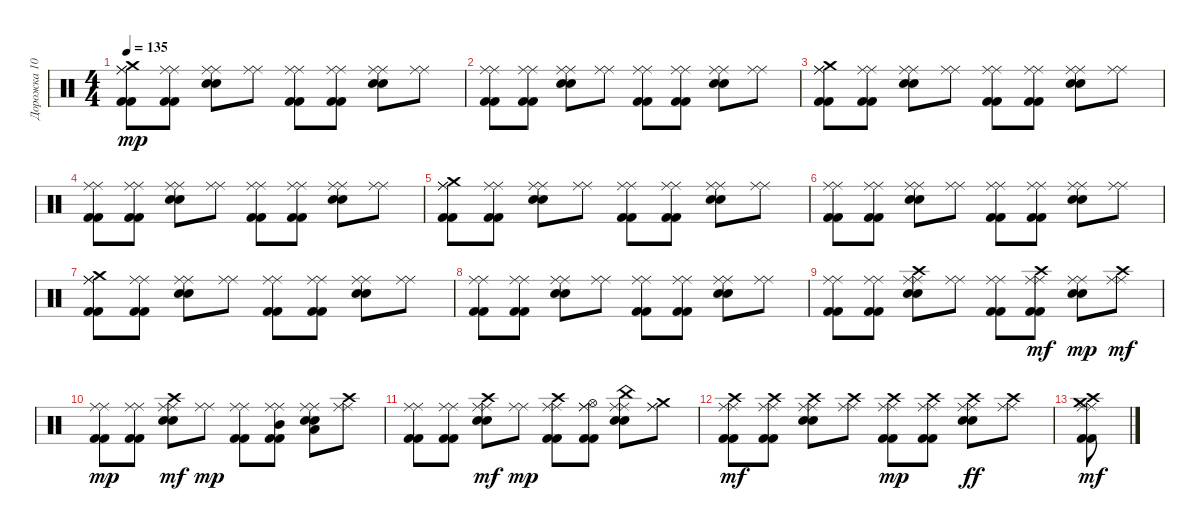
\track ("Дорожка 10" "Дорожка 10") {instrument percussion}
\staff {score}
\articulation defaults
\ts (4 4)
\tempo 135
\clef neutral
\ks c
("Kick (hit) 2" "Ride (middle)" "Kick (hit) 2" "Ride (middle)" "Crash medium (hit)").8{dy mp} ("Kick (hit) 2" "Ride (middle)" "Kick (hit) 2" "Ride (middle)").8 ("Snare (hit) 2" "Ride (middle)" "Snare (hit) 2" "Ride (middle)").8 ("Ride (middle)" "Ride (middle)").8 ("Kick (hit) 2" "Ride (middle)" "Kick (hit) 2" "Ride (middle)").8 ("Kick (hit) 2" "Ride (middle)" "Kick (hit) 2" "Ride (middle)").8 ("Snare (hit) 2" "Ride (middle)" "Snare (hit) 2" "Ride (middle)").8 ("Ride (middle)" "Ride (middle)").8 |
("Kick (hit) 2" "Ride (middle)" "Kick (hit) 2" "Ride (middle)").8 ("Kick (hit) 2" "Ride (middle)" "Kick (hit) 2" "Ride (middle)").8 ("Snare (hit) 2" "Ride (middle)" "Snare (hit) 2" "Ride (middle)").8 ("Ride (middle)" "Ride (middle)").8 ("Kick (hit) 2" "Ride (middle)" "Kick (hit) 2" "Ride (middle)").8 ("Kick (hit) 2" "Ride (middle)" "Kick (hit) 2" "Ride (middle)").8 ("Snare (hit) 2" "Ride (middle)" "Snare (hit) 2" "Ride (middle)").8 ("Ride (middle)" "Ride (middle)").8 |
("Kick (hit) 2" "Ride (middle)" "Kick (hit) 2" "Ride (middle)" "Crash medium (hit)").8 ("Kick (hit) 2" "Ride (middle)" "Kick (hit) 2" "Ride (middle)").8 ("Snare (hit) 2" "Ride (middle)" "Snare (hit) 2" "Ride (middle)").8 ("Ride (middle)" "Ride (middle)").8 ("Kick (hit) 2" "Ride (middle)" "Kick (hit) 2" "Ride (middle)").8 ("Kick (hit) 2" "Ride (middle)" "Kick (hit) 2" "Ride (middle)").8 ("Snare (hit) 2" "Ride (middle)" "Snare (hit) 2" "Ride (middle)").8 ("Ride (middle)" "Ride (middle)").8 |
("Kick (hit) 2" "Ride (middle)" "Kick (hit) 2" "Ride (middle)").8 ("Kick (hit) 2" "Ride (middle)" "Kick (hit) 2" "Ride (middle)").8 ("Snare (hit) 2" "Ride (middle)" "Snare (hit) 2" "Ride (middle)").8 ("Ride (middle)" "Ride (middle)").8 ("Kick (hit) 2" "Ride (middle)" "Kick (hit) 2" "Ride (middle)").8 ("Kick (hit) 2" "Ride (middle)" "Kick (hit) 2" "Ride (middle)").8 ("Snare (hit) 2" "Ride (middle)" "Snare (hit) 2" "Ride (middle)").8 ("Ride (middle)" "Ride (middle)").8 |
("Kick (hit) 2" "Ride (middle)" "Kick (hit) 2" "Ride (middle)" "Crash medium (hit)").8 ("Kick (hit) 2" "Ride (middle)" "Kick (hit) 2" "Ride (middle)").8 ("Snare (hit) 2" "Ride (middle)" "Snare (hit) 2" "Ride (middle)").8 ("Ride (middle)" "Ride (middle)").8 ("Kick (hit) 2" "Ride (middle)" "Kick (hit) 2" "Ride (middle)").8 ("Kick (hit) 2" "Ride (middle)" "Kick (hit) 2" "Ride (middle)").8 ("Snare (hit) 2" "Ride (middle)" "Snare (hit) 2" "Ride (middle)").8 ("Ride (middle)" "Ride (middle)").8 |
("Kick (hit) 2" "Ride (middle)" "Kick (hit) 2" "Ride (middle)").8 ("Kick (hit) 2" "Ride (middle)" "Kick (hit) 2" "Ride (middle)").8 ("Snare (hit) 2" "Ride (middle)" "Snare (hit) 2" "Ride (middle)").8 ("Ride (middle)" "Ride (middle)").8 ("Kick (hit) 2" "Ride (middle)" "Kick (hit) 2" "Ride (middle)").8 ("Kick (hit) 2" "Ride (middle)" "Kick (hit) 2" "Ride (middle)").8 ("Snare (hit) 2" "Ride (middle)" "Snare (hit) 2" "Ride (middle)").8 ("Ride (middle)" "Ride (middle)").8 |
("Kick (hit) 2" "Ride (middle)" "Kick (hit) 2" "Ride (middle)" "Crash medium (hit)").8 ("Kick (hit) 2" "Ride (middle)" "Kick (hit) 2" "Ride (middle)").8 ("Snare (hit) 2" "Ride (middle)" "Snare (hit) 2" "Ride (middle)").8 ("Ride (middle)" "Ride (middle)").8 ("Kick (hit) 2" "Ride (middle)" "Kick (hit) 2" "Ride (middle)").8 ("Kick (hit) 2" "Ride (middle)" "Kick (hit) 2" "Ride (middle)").8 ("Snare (hit) 2" "Ride (middle)" "Snare (hit) 2" "Ride (middle)").8 ("Ride (middle)" "Ride (middle)").8 |
("Kick (hit) 2" "Ride (middle)" "Kick (hit) 2" "Ride (middle)").8 ("Kick (hit) 2" "Ride (middle)" "Kick (hit) 2" "Ride (middle)").8 ("Snare (hit) 2" "Ride (middle)" "Snare (hit) 2" "Ride (middle)").8 ("Ride (middle)" "Ride (middle)").8 ("Kick (hit) 2" "Ride (middle)" "Kick (hit) 2" "Ride (middle)").8 ("Kick (hit) 2" "Ride (middle)" "Kick (hit) 2" "Ride (middle)").8 ("Snare (hit) 2" "Ride (middle)" "Snare (hit) 2" "Ride (middle)").8 ("Ride (middle)" "Ride (middle)").8 |
("Kick (hit) 2" "Ride (middle)" "Kick (hit) 2" "Ride (middle)").8 ("Kick (hit) 2" "Ride (middle)" "Kick (hit) 2" "Ride (middle)").8 ("Snare (hit) 2" "Ride (middle)" "Snare (hit) 2" "Ride (middle)" "Crash high (hit)").8 ("Ride (middle)" "Ride (middle)").8 ("Kick (hit) 2" "Ride (middle)" "Kick (hit) 2" "Ride (middle)").8 ("Kick (hit) 2" "Ride (middle)" "Kick (hit) 2" "Ride (middle)" "Crash high (hit)").8{dy mf} ("Snare (hit) 2" "Ride (middle)" "Snare (hit) 2" "Ride (middle)").8{dy mp} ("Ride (middle)" "Ride (middle)" "Crash high (hit)").8{dy mf} |
("Kick (hit) 2" "Ride (middle)" "Kick (hit) 2" "Ride (middle)").8{dy mp} ("Kick (hit) 2" "Ride (middle)" "Kick (hit) 2" "Ride (middle)").8 ("Snare (hit) 2" "Ride (middle)" "Snare (hit) 2" "Ride (middle)" "Crash high (hit)").8{dy mf} ("Ride (middle)" "Ride (middle)").8{dy mp} ("Kick (hit) 2" "Ride (middle)" "Kick (hit) 2" "Ride (middle)").8 ("Kick (hit) 2" "Ride (middle)" "Kick (hit) 2" "Ride (middle)" "Mid Tom (hit)").8 ("Snare (hit) 2" "Ride (middle)" "Snare (hit) 2" "Ride (middle)" "Low Tom (hit)").8 ("Ride (middle)" "Ride (middle)" "Crash high (hit)").8 |
("Kick (hit) 2" "Ride (middle)" "Kick (hit) 2" "Ride (middle)").8 ("Kick (hit) 2" "Ride (middle)" "Kick (hit) 2" "Ride (middle)").8 ("Snare (hit) 2" "Ride (middle)" "Snare (hit) 2" "Ride (middle)" "Crash high (hit)").8{dy mf} ("Ride (middle)" "Ride (middle)").8{dy mp} ("Kick (hit) 2" "Ride (middle)" "Kick (hit) 2" "Ride (middle)" "Crash high (hit)").8 ("Kick (hit) 2" "Ride (middle)" "Kick (hit) 2" "Ride (middle)" "Hi-Hat (open)").8 ("Snare (hit) 2" "Ride (middle)" "Snare (hit) 2" "Ride (middle)" "China (hit)").8 ("Ride (middle)" "Ride (middle)" "Crash medium (hit)").8 |
("Kick (hit) 2" "Ride (middle)" "Kick (hit) 2" "Ride (middle)" "Crash high (hit)").8{dy mf} ("Kick (hit) 2" "Ride (middle)" "Kick (hit) 2" "Ride (middle)" "Crash high (hit)").8 ("Snare (hit) 2" "Ride (middle)" "Snare (hit) 2" "Ride (middle)" "Crash high (hit)").8 ("Ride (middle)" "Ride (middle)" "Crash high (hit)").8 ("Kick (hit) 2" "Ride (middle)" "Kick (hit) 2" "Ride (middle)" "Crash high (hit)").8{dy mp} ("Kick (hit) 2" "Ride (middle)" "Kick (hit) 2" "Ride (middle)" "Crash high (hit)").8 ("Snare (hit) 2" "Ride (middle)" "Snare (hit) 2" "Ride (middle)" "Crash high (hit)").8{dy ff} ("Ride (middle)" "Ride (middle)" "Crash high (hit)").8 |
("Kick (hit) 2" "Ride (middle)" "Kick (hit) 2" "Ride (middle)" "Crash medium (hit)" "Crash high (hit)").8{dy mf}
